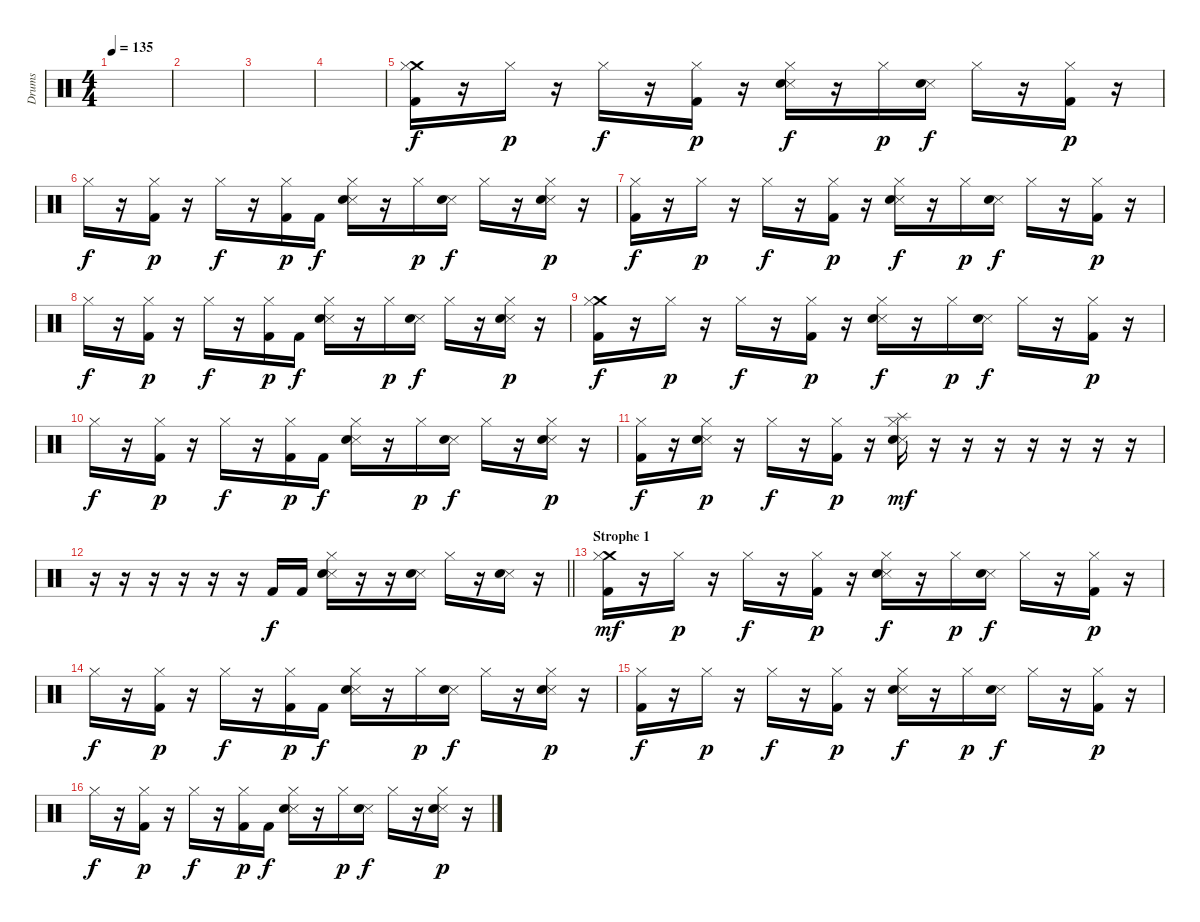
\track ("Drums" "Drums") {instrument percussion}
\staff {score}
\articulation defaults
\ts (4 4)
\tempo 135
\clef neutral
\ks c
|
|
|
|
("Crash medium (hit)" "Kick (hit) 2" "Hi-Hat (closed)").16 r.16 "Hi-Hat (closed)".16{dy p} r.16 "Hi-Hat (closed)".16{dy f} r.16 ("Kick (hit) 2" "Hi-Hat (closed)").16{dy p} r.16 ("Snare (side stick) 3" "Electric Snare (hit)" "Hi-Hat (closed)").16{dy f} r.16 "Hi-Hat (closed)".16{dy p} ("Snare (side stick) 3" "Electric Snare (hit)").16{dy f} "Hi-Hat (closed)".16 r.16 ("Kick (hit) 2" "Hi-Hat (closed)").16{dy p} r.16 |
"Hi-Hat (closed)".16{dy f} r.16 ("Kick (hit) 2" "Hi-Hat (closed)").16{dy p} r.16 "Hi-Hat (closed)".16{dy f} r.16 ("Kick (hit) 2" "Hi-Hat (closed)").16{dy p} "Kick (hit) 2".16{dy f} ("Snare (side stick) 3" "Electric Snare (hit)" "Hi-Hat (closed)").16 r.16 "Hi-Hat (closed)".16{dy p} ("Snare (side stick) 3" "Electric Snare (hit)").16{dy f} "Hi-Hat (closed)".16 r.16 ("Snare (side stick) 3" "Electric Snare (hit)" "Hi-Hat (closed)").16{dy p} r.16 |
("Kick (hit) 2" "Hi-Hat (closed)").16{dy f} r.16 "Hi-Hat (closed)".16{dy p} r.16 "Hi-Hat (closed)".16{dy f} r.16 ("Kick (hit) 2" "Hi-Hat (closed)").16{dy p} r.16 ("Snare (side stick) 3" "Electric Snare (hit)" "Hi-Hat (closed)").16{dy f} r.16 "Hi-Hat (closed)".16{dy p} ("Snare (side stick) 3" "Electric Snare (hit)").16{dy f} "Hi-Hat (closed)".16 r.16 ("Kick (hit) 2" "Hi-Hat (closed)").16{dy p} r.16 |
"Hi-Hat (closed)".16{dy f} r.16 ("Kick (hit) 2" "Hi-Hat (closed)").16{dy p} r.16 "Hi-Hat (closed)".16{dy f} r.16 ("Kick (hit) 2" "Hi-Hat (closed)").16{dy p} "Kick (hit) 2".16{dy f} ("Snare (side stick) 3" "Electric Snare (hit)" "Hi-Hat (closed)").16 r.16 "Hi-Hat (closed)".16{dy p} ("Snare (side stick) 3" "Electric Snare (hit)").16{dy f} "Hi-Hat (closed)".16 r.16 ("Snare (side stick) 3" "Electric Snare (hit)" "Hi-Hat (closed)").16{dy p} r.16 |
("Crash medium (hit)" "Kick (hit) 2" "Hi-Hat (closed)").16{dy f} r.16 "Hi-Hat (closed)".16{dy p} r.16 "Hi-Hat (closed)".16{dy f} r.16 ("Kick (hit) 2" "Hi-Hat (closed)").16{dy p} r.16 ("Snare (side stick) 3" "Electric Snare (hit)" "Hi-Hat (closed)").16{dy f} r.16 "Hi-Hat (closed)".16{dy p} ("Snare (side stick) 3" "Electric Snare (hit)").16{dy f} "Hi-Hat (closed)".16 r.16 ("Kick (hit) 2" "Hi-Hat (closed)").16{dy p} r.16 |
"Hi-Hat (closed)".16{dy f} r.16 ("Kick (hit) 2" "Hi-Hat (closed)").16{dy p} r.16 "Hi-Hat (closed)".16{dy f} r.16 ("Kick (hit) 2" "Hi-Hat (closed)").16{dy p} "Kick (hit) 2".16{dy f} ("Snare (side stick) 3" "Electric Snare (hit)" "Hi-Hat (closed)").16 r.16 "Hi-Hat (closed)".16{dy p} ("Snare (side stick) 3" "Electric Snare (hit)").16{dy f} "Hi-Hat (closed)".16 r.16 ("Snare (side stick) 3" "Electric Snare (hit)" "Hi-Hat (closed)").16{dy p} r.16 |
("Kick (hit) 2" "Hi-Hat (closed)").16{dy f} r.16 ("Snare (side stick) 3" "Electric Snare (hit)" "Hi-Hat (closed)").16{dy p} r.16 "Hi-Hat (closed)".16{dy f} r.16 ("Kick (hit) 2" "Hi-Hat (closed)").16{dy p} r.16 ("Splash (hit)" "Snare (side stick) 3" "Electric Snare (hit)" "Hi-Hat (closed)").16{dy mf} r.16 r.16 r.16 r.16 r.16 r.16 r.16 |
\barLineRight lightlight
r.16 r.16 r.16 r.16 r.16 r.16 "Kick (hit) 2".16{dy f} "Kick (hit) 2".16 ("Snare (side stick) 3" "Electric Snare (hit)" "Hi-Hat (closed)").16 r.16 r.16 ("Snare (side stick) 3" "Electric Snare (hit)").16 "Hi-Hat (closed)".16 r.16 ("Snare (side stick) 3" "Electric Snare (hit)").16 r.16 |
\section ("" "Strophe 1")
("Crash medium (hit)" "Kick (hit) 2" "Hi-Hat (closed)").16{dy mf} r.16 "Hi-Hat (closed)".16{dy p} r.16 "Hi-Hat (closed)".16{dy f} r.16 ("Kick (hit) 2" "Hi-Hat (closed)").16{dy p} r.16 ("Snare (side stick) 3" "Electric Snare (hit)" "Hi-Hat (closed)").16{dy f} r.16 "Hi-Hat (closed)".16{dy p} ("Snare (side stick) 3" "Electric Snare (hit)").16{dy f} "Hi-Hat (closed)".16 r.16 ("Kick (hit) 2" "Hi-Hat (closed)").16{dy p} r.16 |
"Hi-Hat (closed)".16{dy f} r.16 ("Kick (hit) 2" "Hi-Hat (closed)").16{dy p} r.16 "Hi-Hat (closed)".16{dy f} r.16 ("Kick (hit) 2" "Hi-Hat (closed)").16{dy p} "Kick (hit) 2".16{dy f} ("Snare (side stick) 3" "Electric Snare (hit)" "Hi-Hat (closed)").16 r.16 "Hi-Hat (closed)".16{dy p} ("Snare (side stick) 3" "Electric Snare (hit)").16{dy f} "Hi-Hat (closed)".16 r.16 ("Snare (side stick) 3" "Electric Snare (hit)" "Hi-Hat (closed)").16{dy p} r.16 |
("Kick (hit) 2" "Hi-Hat (closed)").16{dy f} r.16 "Hi-Hat (closed)".16{dy p} r.16 "Hi-Hat (closed)".16{dy f} r.16 ("Kick (hit) 2" "Hi-Hat (closed)").16{dy p} r.16 ("Snare (side stick) 3" "Electric Snare (hit)" "Hi-Hat (closed)").16{dy f} r.16 "Hi-Hat (closed)".16{dy p} ("Snare (side stick) 3" "Electric Snare (hit)").16{dy f} "Hi-Hat (closed)".16 r.16 ("Kick (hit) 2" "Hi-Hat (closed)").16{dy p} r.16 |
"Hi-Hat (closed)".16{dy f} r.16 ("Kick (hit) 2" "Hi-Hat (closed)").16{dy p} r.16 "Hi-Hat (closed)".16{dy f} r.16 ("Kick (hit) 2" "Hi-Hat (closed)").16{dy p} "Kick (hit) 2".16{dy f} ("Snare (side stick) 3" "Electric Snare (hit)" "Hi-Hat (closed)").16 r.16 "Hi-Hat (closed)".16{dy p} ("Snare (side stick) 3" "Electric Snare (hit)").16{dy f} "Hi-Hat (closed)".16 r.16 ("Snare (side stick) 3" "Electric Snare (hit)" "Hi-Hat (closed)").16{dy p} r.16
